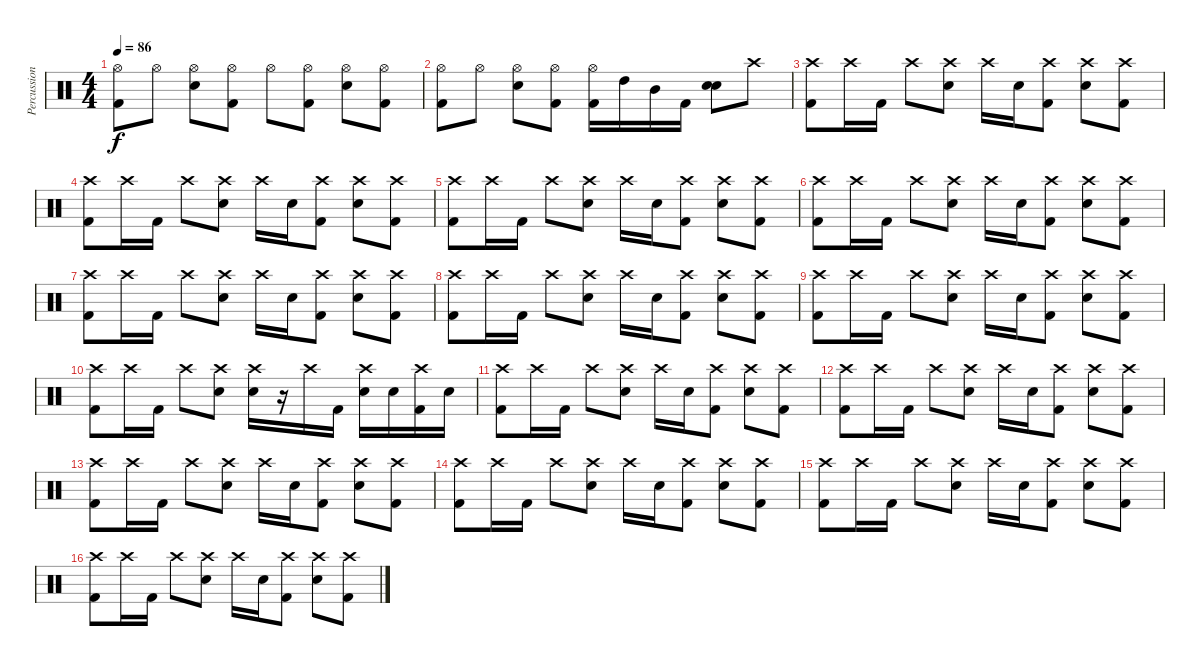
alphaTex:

\track ("Percussions" "Percussion") {instrument percussion}
\staff {score}
\articulation defaults
\ts (4 4)
\tempo 86
\clef neutral
\ks c
("Hi-Hat (open)" "Kick (hit) 2").8{dy f} "Hi-Hat (open)".8 ("Hi-Hat (open)" "Electric Snare (hit)").8 ("Hi-Hat (open)" "Kick (hit) 2").8 "Hi-Hat (open)".8 ("Hi-Hat (open)" "Kick (hit) 2").8 ("Hi-Hat (open)" "Electric Snare (hit)").8 ("Hi-Hat (open)" "Kick (hit) 2").8 |
("Hi-Hat (open)" "Kick (hit) 2").8 "Hi-Hat (open)".8 ("Hi-Hat (open)" "Electric Snare (hit)").8 ("Hi-Hat (open)" "Kick (hit) 2").8 ("Hi-Hat (open)" "Kick (hit) 2").16 "High Tom (hit)".16 "Mid Tom (hit)".16 "Kick (hit) 2".16 ("Electric Snare (hit)" "Electric Snare (hit)").8 "Crash high (hit)".8 |
("Crash high (hit)" "Kick (hit) 2").8 "Crash high (hit)".16 "Kick (hit) 2".16 "Crash high (hit)".8 ("Crash high (hit)" "Electric Snare (hit)").8 "Crash high (hit)".16 "Electric Snare (hit)".16 ("Crash high (hit)" "Kick (hit) 2").8 ("Crash high (hit)" "Electric Snare (hit)").8 ("Crash high (hit)" "Kick (hit) 2").8 |
("Crash high (hit)" "Kick (hit) 2").8 "Crash high (hit)".16 "Kick (hit) 2".16 "Crash high (hit)".8 ("Crash high (hit)" "Electric Snare (hit)").8 "Crash high (hit)".16 "Electric Snare (hit)".16 ("Crash high (hit)" "Kick (hit) 2").8 ("Crash high (hit)" "Electric Snare (hit)").8 ("Crash high (hit)" "Kick (hit) 2").8 |
("Crash high (hit)" "Kick (hit) 2").8 "Crash high (hit)".16 "Kick (hit) 2".16 "Crash high (hit)".8 ("Crash high (hit)" "Electric Snare (hit)").8 "Crash high (hit)".16 "Electric Snare (hit)".16 ("Crash high (hit)" "Kick (hit) 2").8 ("Crash high (hit)" "Electric Snare (hit)").8 ("Crash high (hit)" "Kick (hit) 2").8 |
("Crash high (hit)" "Kick (hit) 2").8 "Crash high (hit)".16 "Kick (hit) 2".16 "Crash high (hit)".8 ("Crash high (hit)" "Electric Snare (hit)").8 "Crash high (hit)".16 "Electric Snare (hit)".16 ("Crash high (hit)" "Kick (hit) 2").8 ("Crash high (hit)" "Electric Snare (hit)").8 ("Crash high (hit)" "Kick (hit) 2").8 |
("Crash high (hit)" "Kick (hit) 2").8 "Crash high (hit)".16 "Kick (hit) 2".16 "Crash high (hit)".8 ("Crash high (hit)" "Electric Snare (hit)").8 "Crash high (hit)".16 "Electric Snare (hit)".16 ("Crash high (hit)" "Kick (hit) 2").8 ("Crash high (hit)" "Electric Snare (hit)").8 ("Crash high (hit)" "Kick (hit) 2").8 |
("Crash high (hit)" "Kick (hit) 2").8 "Crash high (hit)".16 "Kick (hit) 2".16 "Crash high (hit)".8 ("Crash high (hit)" "Electric Snare (hit)").8 "Crash high (hit)".16 "Electric Snare (hit)".16 ("Crash high (hit)" "Kick (hit) 2").8 ("Crash high (hit)" "Electric Snare (hit)").8 ("Crash high (hit)" "Kick (hit) 2").8 |
("Crash high (hit)" "Kick (hit) 2").8 "Crash high (hit)".16 "Kick (hit) 2".16 "Crash high (hit)".8 ("Crash high (hit)" "Electric Snare (hit)").8 "Crash high (hit)".16 "Electric Snare (hit)".16 ("Crash high (hit)" "Kick (hit) 2").8 ("Crash high (hit)" "Electric Snare (hit)").8 ("Crash high (hit)" "Kick (hit) 2").8 |
("Crash high (hit)" "Kick (hit) 2").8 "Crash high (hit)".16 "Kick (hit) 2".16 "Crash high (hit)".8 ("Crash high (hit)" "Electric Snare (hit)").8 ("Crash high (hit)" "Electric Snare (hit)").16 r.16 "Crash high (hit)".16 "Kick (hit) 2".16 ("Crash high (hit)" "Electric Snare (hit)").16 "Electric Snare (hit)".16 ("Crash high (hit)" "Kick (hit) 2").16 "Electric Snare (hit)".16 |
("Crash high (hit)" "Kick (hit) 2").8 "Crash high (hit)".16 "Kick (hit) 2".16 "Crash high (hit)".8 ("Crash high (hit)" "Electric Snare (hit)").8 "Crash high (hit)".16 "Electric Snare (hit)".16 ("Crash high (hit)" "Kick (hit) 2").8 ("Crash high (hit)" "Electric Snare (hit)").8 ("Crash high (hit)" "Kick (hit) 2").8 |
("Crash high (hit)" "Kick (hit) 2").8 "Crash high (hit)".16 "Kick (hit) 2".16 "Crash high (hit)".8 ("Crash high (hit)" "Electric Snare (hit)").8 "Crash high (hit)".16 "Electric Snare (hit)".16 ("Crash high (hit)" "Kick (hit) 2").8 ("Crash high (hit)" "Electric Snare (hit)").8 ("Crash high (hit)" "Kick (hit) 2").8 |
("Crash high (hit)" "Kick (hit) 2").8 "Crash high (hit)".16 "Kick (hit) 2".16 "Crash high (hit)".8 ("Crash high (hit)" "Electric Snare (hit)").8 "Crash high (hit)".16 "Electric Snare (hit)".16 ("Crash high (hit)" "Kick (hit) 2").8 ("Crash high (hit)" "Electric Snare (hit)").8 ("Crash high (hit)" "Kick (hit) 2").8 |
("Crash high (hit)" "Kick (hit) 2").8 "Crash high (hit)".16 "Kick (hit) 2".16 "Crash high (hit)".8 ("Crash high (hit)" "Electric Snare (hit)").8 "Crash high (hit)".16 "Electric Snare (hit)".16 ("Crash high (hit)" "Kick (hit) 2").8 ("Crash high (hit)" "Electric Snare (hit)").8 ("Crash high (hit)" "Kick (hit) 2").8 |
("Crash high (hit)" "Kick (hit) 2").8 "Crash high (hit)".16 "Kick (hit) 2".16 "Crash high (hit)".8 ("Crash high (hit)" "Electric Snare (hit)").8 "Crash high (hit)".16 "Electric Snare (hit)".16 ("Crash high (hit)" "Kick (hit) 2").8 ("Crash high (hit)" "Electric Snare (hit)").8 ("Crash high (hit)" "Kick (hit) 2").8 |
("Crash high (hit)" "Kick (hit) 2").8 "Crash high (hit)".16 "Kick (hit) 2".16 "Crash high (hit)".8 ("Crash high (hit)" "Electric Snare (hit)").8 "Crash high (hit)".16 "Electric Snare (hit)".16 ("Crash high (hit)" "Kick (hit) 2").8 ("Crash high (hit)" "Electric Snare (hit)").8 ("Crash high (hit)" "Kick (hit) 2").8
